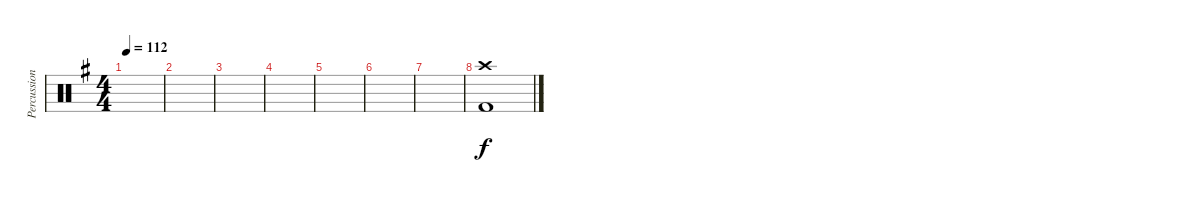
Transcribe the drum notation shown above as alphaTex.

\track ("Percussion" "Percussion") {instrument percussion}
\staff {score}
\articulation defaults
\ts (4 4)
\tempo 112
\clef neutral
\ks g
|
|
|
|
|
|
|
("Crash high (hit)" "Kick (hit) 2").1
